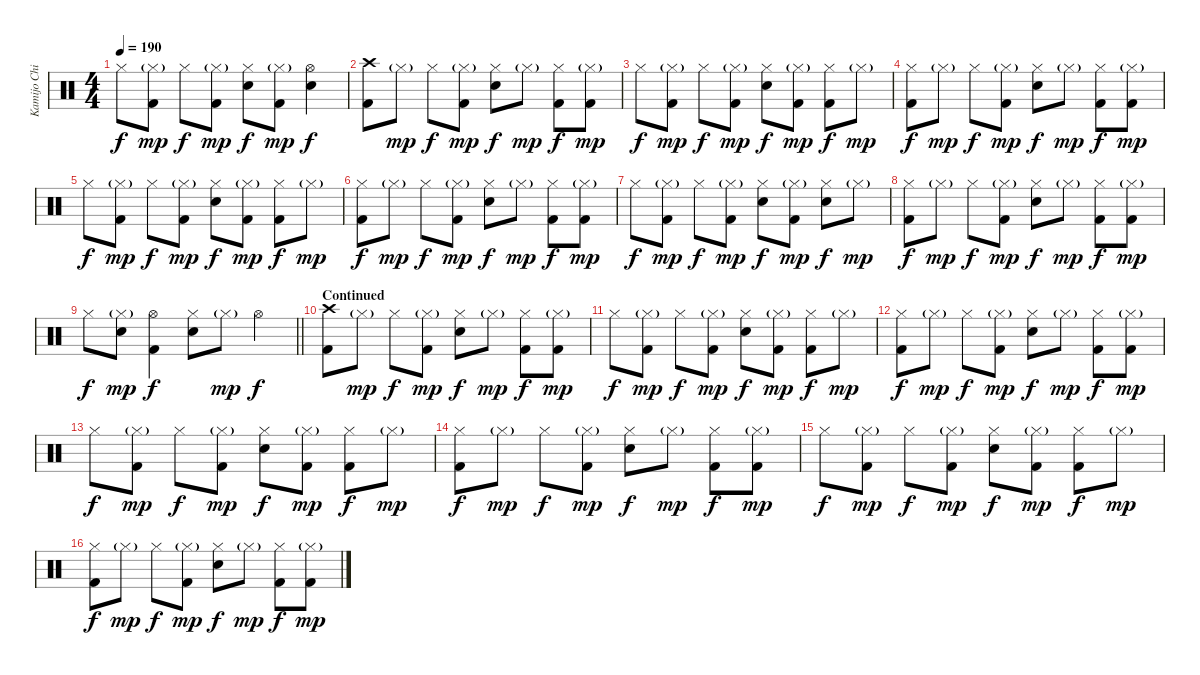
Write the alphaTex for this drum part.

\track ("Kamijo Chihiro" "Kamijo Chi") {instrument percussion}
\staff {score}
\articulation defaults
\ts (4 4)
\tempo 190
\clef neutral
\ks c "Hi-Hat (closed)".8{dy f}
("Hi-Hat (closed)"{g} "Kick (hit) 2").8{dy mp} "Hi-Hat (closed)".8{dy f} ("Hi-Hat (closed)"{g} "Kick (hit) 2").8{dy mp} ("Hi-Hat (closed)" "Snare (hit) 2").8{dy f} ("Hi-Hat (closed)"{g} "Kick (hit) 2").8{dy mp} ("Hi-Hat (open)" "Snare (hit) 2").4{dy f} |
("Crash high (hit)" "Kick (hit) 2").8 "Hi-Hat (closed)"{g}.8{dy mp} "Hi-Hat (closed)".8{dy f} ("Hi-Hat (closed)"{g} "Kick (hit) 2").8{dy mp} ("Hi-Hat (closed)" "Snare (hit) 2").8{dy f} "Hi-Hat (closed)"{g}.8{dy mp} ("Hi-Hat (closed)" "Kick (hit) 2").8{dy f} ("Hi-Hat (closed)"{g} "Kick (hit) 2").8{dy mp} |
"Hi-Hat (closed)".8{dy f} ("Hi-Hat (closed)"{g} "Kick (hit) 2").8{dy mp} "Hi-Hat (closed)".8{dy f} ("Hi-Hat (closed)"{g} "Kick (hit) 2").8{dy mp} ("Hi-Hat (closed)" "Snare (hit) 2").8{dy f} ("Hi-Hat (closed)"{g} "Kick (hit) 2").8{dy mp} ("Hi-Hat (closed)" "Kick (hit) 2").8{dy f} "Hi-Hat (closed)"{g}.8{dy mp} |
("Hi-Hat (closed)" "Kick (hit) 2").8{dy f} "Hi-Hat (closed)"{g}.8{dy mp} "Hi-Hat (closed)".8{dy f} ("Hi-Hat (closed)"{g} "Kick (hit) 2").8{dy mp} ("Hi-Hat (closed)" "Snare (hit) 2").8{dy f} "Hi-Hat (closed)"{g}.8{dy mp} ("Hi-Hat (closed)" "Kick (hit) 2").8{dy f} ("Hi-Hat (closed)"{g} "Kick (hit) 2").8{dy mp} |
"Hi-Hat (closed)".8{dy f} ("Hi-Hat (closed)"{g} "Kick (hit) 2").8{dy mp} "Hi-Hat (closed)".8{dy f} ("Hi-Hat (closed)"{g} "Kick (hit) 2").8{dy mp} ("Hi-Hat (closed)" "Snare (hit) 2").8{dy f} ("Hi-Hat (closed)"{g} "Kick (hit) 2").8{dy mp} ("Hi-Hat (closed)" "Kick (hit) 2").8{dy f} "Hi-Hat (closed)"{g}.8{dy mp} |
("Hi-Hat (closed)" "Kick (hit) 2").8{dy f} "Hi-Hat (closed)"{g}.8{dy mp} "Hi-Hat (closed)".8{dy f} ("Hi-Hat (closed)"{g} "Kick (hit) 2").8{dy mp} ("Hi-Hat (closed)" "Snare (hit) 2").8{dy f} "Hi-Hat (closed)"{g}.8{dy mp} ("Hi-Hat (closed)" "Kick (hit) 2").8{dy f} ("Hi-Hat (closed)"{g} "Kick (hit) 2").8{dy mp} |
"Hi-Hat (closed)".8{dy f} ("Hi-Hat (closed)"{g} "Kick (hit) 2").8{dy mp} "Hi-Hat (closed)".8{dy f} ("Hi-Hat (closed)"{g} "Kick (hit) 2").8{dy mp} ("Hi-Hat (closed)" "Snare (hit) 2").8{dy f} ("Hi-Hat (closed)"{g} "Kick (hit) 2").8{dy mp} ("Hi-Hat (closed)" "Snare (hit) 2").8{dy f} "Hi-Hat (closed)"{g}.8{dy mp} |
("Hi-Hat (closed)" "Kick (hit) 2").8{dy f} "Hi-Hat (closed)"{g}.8{dy mp} "Hi-Hat (closed)".8{dy f} ("Hi-Hat (closed)"{g} "Kick (hit) 2").8{dy mp} ("Hi-Hat (closed)" "Snare (hit) 2").8{dy f} "Hi-Hat (closed)"{g}.8{dy mp} ("Hi-Hat (closed)" "Kick (hit) 2").8{dy f} ("Hi-Hat (closed)"{g} "Kick (hit) 2").8{dy mp} |
\barLineRight lightlight "Hi-Hat (closed)".8{dy f}
("Hi-Hat (closed)"{g} "Snare (hit) 2").8{dy mp} ("Hi-Hat (open)" "Kick (hit) 2").4{dy f} ("Hi-Hat (closed)" "Snare (hit) 2").8 "Hi-Hat (closed)"{g}.8{dy mp} "Hi-Hat (open)".4{dy f} |
\section ("" "Continued")
("Crash high (hit)" "Kick (hit) 2").8 "Hi-Hat (closed)"{g}.8{dy mp} "Hi-Hat (closed)".8{dy f} ("Hi-Hat (closed)"{g} "Kick (hit) 2").8{dy mp} ("Hi-Hat (closed)" "Snare (hit) 2").8{dy f} "Hi-Hat (closed)"{g}.8{dy mp} ("Hi-Hat (closed)" "Kick (hit) 2").8{dy f} ("Hi-Hat (closed)"{g} "Kick (hit) 2").8{dy mp} |
"Hi-Hat (closed)".8{dy f} ("Hi-Hat (closed)"{g} "Kick (hit) 2").8{dy mp} "Hi-Hat (closed)".8{dy f} ("Hi-Hat (closed)"{g} "Kick (hit) 2").8{dy mp} ("Hi-Hat (closed)" "Snare (hit) 2").8{dy f} ("Hi-Hat (closed)"{g} "Kick (hit) 2").8{dy mp} ("Hi-Hat (closed)" "Kick (hit) 2").8{dy f} "Hi-Hat (closed)"{g}.8{dy mp} |
("Hi-Hat (closed)" "Kick (hit) 2").8{dy f} "Hi-Hat (closed)"{g}.8{dy mp} "Hi-Hat (closed)".8{dy f} ("Hi-Hat (closed)"{g} "Kick (hit) 2").8{dy mp} ("Hi-Hat (closed)" "Snare (hit) 2").8{dy f} "Hi-Hat (closed)"{g}.8{dy mp} ("Hi-Hat (closed)" "Kick (hit) 2").8{dy f} ("Hi-Hat (closed)"{g} "Kick (hit) 2").8{dy mp} |
"Hi-Hat (closed)".8{dy f} ("Hi-Hat (closed)"{g} "Kick (hit) 2").8{dy mp} "Hi-Hat (closed)".8{dy f} ("Hi-Hat (closed)"{g} "Kick (hit) 2").8{dy mp} ("Hi-Hat (closed)" "Snare (hit) 2").8{dy f} ("Hi-Hat (closed)"{g} "Kick (hit) 2").8{dy mp} ("Hi-Hat (closed)" "Kick (hit) 2").8{dy f} "Hi-Hat (closed)"{g}.8{dy mp} |
("Hi-Hat (closed)" "Kick (hit) 2").8{dy f} "Hi-Hat (closed)"{g}.8{dy mp} "Hi-Hat (closed)".8{dy f} ("Hi-Hat (closed)"{g} "Kick (hit) 2").8{dy mp} ("Hi-Hat (closed)" "Snare (hit) 2").8{dy f} "Hi-Hat (closed)"{g}.8{dy mp} ("Hi-Hat (closed)" "Kick (hit) 2").8{dy f} ("Hi-Hat (closed)"{g} "Kick (hit) 2").8{dy mp} |
"Hi-Hat (closed)".8{dy f} ("Hi-Hat (closed)"{g} "Kick (hit) 2").8{dy mp} "Hi-Hat (closed)".8{dy f} ("Hi-Hat (closed)"{g} "Kick (hit) 2").8{dy mp} ("Hi-Hat (closed)" "Snare (hit) 2").8{dy f} ("Hi-Hat (closed)"{g} "Kick (hit) 2").8{dy mp} ("Hi-Hat (closed)" "Kick (hit) 2").8{dy f} "Hi-Hat (closed)"{g}.8{dy mp} |
("Hi-Hat (closed)" "Kick (hit) 2").8{dy f} "Hi-Hat (closed)"{g}.8{dy mp} "Hi-Hat (closed)".8{dy f} ("Hi-Hat (closed)"{g} "Kick (hit) 2").8{dy mp} ("Hi-Hat (closed)" "Snare (hit) 2").8{dy f} "Hi-Hat (closed)"{g}.8{dy mp} ("Hi-Hat (closed)" "Kick (hit) 2").8{dy f} ("Hi-Hat (closed)"{g} "Kick (hit) 2").8{dy mp}
